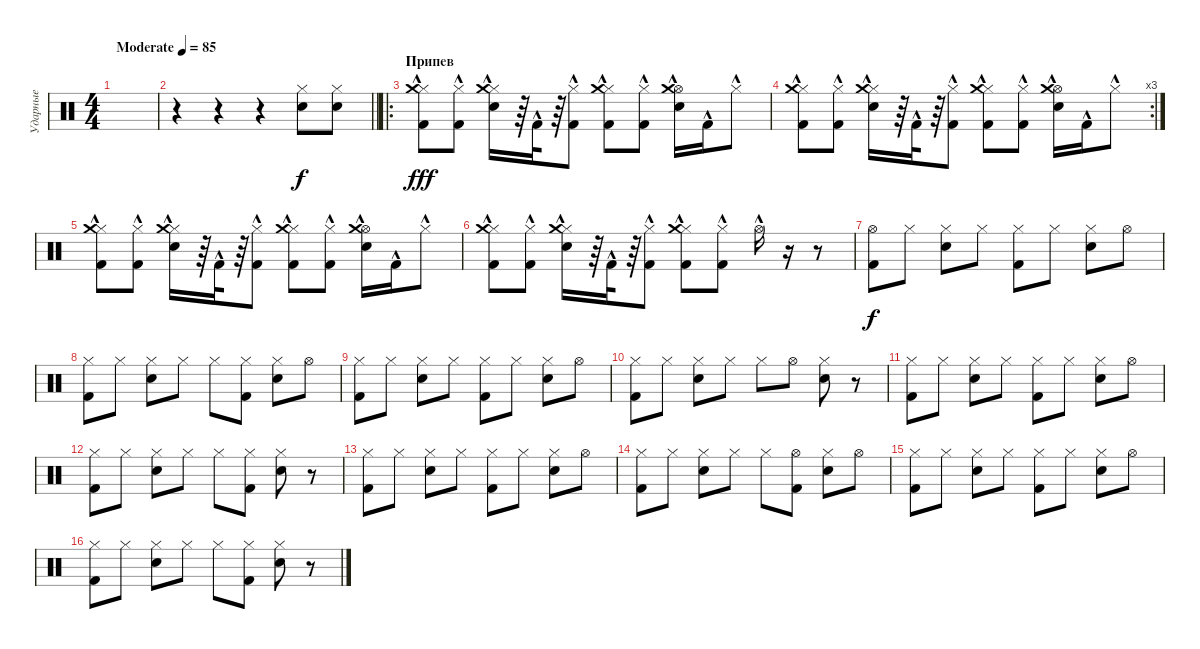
\track ("Ударные" "Ударные") {instrument percussion}
\staff {score}
\articulation defaults
\ts (4 4)
\tempo (85 "Moderate")
\clef neutral
\ks c
|
\barLineRight lightlight
r.4 r.4 r.4 ("Hi-Hat (closed)" "Electric Snare (hit)").8 ("Hi-Hat (closed)" "Electric Snare (hit)").8 |
\ro
\section ("" "Припев")
("Hi-Hat (closed)"{hac} "Kick (hit) 2"{hac} "Crash medium (hit)"{hac}).8{dy fff} ("Hi-Hat (closed)"{hac} "Kick (hit) 2"{hac}).8 ("Hi-Hat (closed)"{hac} "Electric Snare (hit)"{hac} "Crash medium (hit)"{hac}).16 r.64 "Kick (hit) 2"{hac}.32 r.64 ("Hi-Hat (closed)"{hac} "Kick (hit) 2"{hac}).8 ("Hi-Hat (closed)"{hac} "Kick (hit) 2"{hac} "Crash medium (hit)"{hac}).8 ("Hi-Hat (closed)"{hac} "Kick (hit) 2"{hac}).8 ("Hi-Hat (open)"{hac} "Electric Snare (hit)"{hac} "Crash medium (hit)"{hac}).16 "Kick (hit) 2"{hac}.16 "Hi-Hat (closed)"{hac}.8 |
\rc 3
("Hi-Hat (closed)"{hac} "Kick (hit) 2"{hac} "Crash medium (hit)"{hac}).8 ("Hi-Hat (closed)"{hac} "Kick (hit) 2"{hac}).8 ("Hi-Hat (closed)"{hac} "Electric Snare (hit)"{hac} "Crash medium (hit)"{hac}).16 r.64 "Kick (hit) 2"{hac}.32 r.64 ("Hi-Hat (closed)"{hac} "Kick (hit) 2"{hac}).8 ("Hi-Hat (closed)"{hac} "Kick (hit) 2"{hac} "Crash medium (hit)"{hac}).8 ("Hi-Hat (closed)"{hac} "Kick (hit) 2"{hac}).8 ("Hi-Hat (open)"{hac} "Electric Snare (hit)"{hac} "Crash medium (hit)"{hac}).16 "Kick (hit) 2"{hac}.16 "Hi-Hat (closed)"{hac}.8 |
("Hi-Hat (closed)"{hac} "Kick (hit) 2"{hac} "Crash medium (hit)"{hac}).8 ("Hi-Hat (closed)"{hac} "Kick (hit) 2"{hac}).8 ("Hi-Hat (closed)"{hac} "Electric Snare (hit)"{hac} "Crash medium (hit)"{hac}).16 r.64 "Kick (hit) 2"{hac}.32 r.64 ("Hi-Hat (closed)"{hac} "Kick (hit) 2"{hac}).8 ("Hi-Hat (closed)"{hac} "Kick (hit) 2"{hac} "Crash medium (hit)"{hac}).8 ("Hi-Hat (closed)"{hac} "Kick (hit) 2"{hac}).8 ("Hi-Hat (open)"{hac} "Electric Snare (hit)"{hac} "Crash medium (hit)"{hac}).16 "Kick (hit) 2"{hac}.16 "Hi-Hat (closed)"{hac}.8 |
("Hi-Hat (closed)"{hac} "Kick (hit) 2"{hac} "Crash medium (hit)"{hac}).8 ("Hi-Hat (closed)"{hac} "Kick (hit) 2"{hac}).8 ("Hi-Hat (closed)"{hac} "Electric Snare (hit)"{hac} "Crash medium (hit)"{hac}).16 r.64 "Kick (hit) 2"{hac}.32 r.64 ("Hi-Hat (closed)"{hac} "Kick (hit) 2"{hac}).8 ("Hi-Hat (closed)"{hac} "Kick (hit) 2"{hac} "Crash medium (hit)"{hac}).8 ("Hi-Hat (closed)"{hac} "Kick (hit) 2"{hac}).8 "Hi-Hat (open)"{hac}.16 r.16 r.8 |
("Hi-Hat (open)" "Kick (hit) 2").8{dy f} "Hi-Hat (closed)".8 ("Hi-Hat (closed)" "Electric Snare (hit)").8 "Hi-Hat (closed)".8 ("Hi-Hat (closed)" "Kick (hit) 2").8 "Hi-Hat (closed)".8 ("Hi-Hat (closed)" "Electric Snare (hit)").8 "Hi-Hat (open)".8 |
("Hi-Hat (closed)" "Kick (hit) 2").8 "Hi-Hat (closed)".8 ("Hi-Hat (closed)" "Electric Snare (hit)").8 "Hi-Hat (closed)".8 "Hi-Hat (closed)".8 ("Hi-Hat (closed)" "Kick (hit) 2").8 ("Hi-Hat (closed)" "Electric Snare (hit)").8 "Hi-Hat (open)".8 |
("Hi-Hat (closed)" "Kick (hit) 2").8 "Hi-Hat (closed)".8 ("Hi-Hat (closed)" "Electric Snare (hit)").8 "Hi-Hat (closed)".8 ("Hi-Hat (closed)" "Kick (hit) 2").8 "Hi-Hat (closed)".8 ("Hi-Hat (closed)" "Electric Snare (hit)").8 "Hi-Hat (open)".8 |
("Hi-Hat (closed)" "Kick (hit) 2").8 "Hi-Hat (closed)".8 ("Hi-Hat (closed)" "Electric Snare (hit)").8 "Hi-Hat (closed)".8 "Hi-Hat (closed)".8 "Hi-Hat (open)".8 ("Hi-Hat (closed)" "Electric Snare (hit)").8 r.8 |
("Hi-Hat (closed)" "Kick (hit) 2").8 "Hi-Hat (closed)".8 ("Hi-Hat (closed)" "Electric Snare (hit)").8 "Hi-Hat (closed)".8 ("Hi-Hat (closed)" "Kick (hit) 2").8 "Hi-Hat (closed)".8 ("Hi-Hat (closed)" "Electric Snare (hit)").8 "Hi-Hat (open)".8 |
("Hi-Hat (closed)" "Kick (hit) 2").8 "Hi-Hat (closed)".8 ("Hi-Hat (closed)" "Electric Snare (hit)").8 "Hi-Hat (closed)".8 "Hi-Hat (closed)".8 ("Hi-Hat (closed)" "Kick (hit) 2").8 ("Hi-Hat (closed)" "Electric Snare (hit)").8 r.8 |
("Hi-Hat (closed)" "Kick (hit) 2").8 "Hi-Hat (closed)".8 ("Hi-Hat (closed)" "Electric Snare (hit)").8 "Hi-Hat (closed)".8 ("Hi-Hat (closed)" "Kick (hit) 2").8 "Hi-Hat (closed)".8 ("Hi-Hat (closed)" "Electric Snare (hit)").8 "Hi-Hat (open)".8 |
("Hi-Hat (closed)" "Kick (hit) 2").8 "Hi-Hat (closed)".8 ("Hi-Hat (closed)" "Electric Snare (hit)").8 "Hi-Hat (closed)".8 "Hi-Hat (closed)".8 ("Hi-Hat (open)" "Kick (hit) 2").8 ("Hi-Hat (closed)" "Electric Snare (hit)").8 "Hi-Hat (open)".8 |
("Hi-Hat (closed)" "Kick (hit) 2").8 "Hi-Hat (closed)".8 ("Hi-Hat (closed)" "Electric Snare (hit)").8 "Hi-Hat (closed)".8 ("Hi-Hat (closed)" "Kick (hit) 2").8 "Hi-Hat (closed)".8 ("Hi-Hat (closed)" "Electric Snare (hit)").8 "Hi-Hat (open)".8 |
("Hi-Hat (closed)" "Kick (hit) 2").8 "Hi-Hat (closed)".8 ("Hi-Hat (closed)" "Electric Snare (hit)").8 "Hi-Hat (closed)".8 "Hi-Hat (closed)".8 ("Hi-Hat (closed)" "Kick (hit) 2").8 ("Hi-Hat (closed)" "Electric Snare (hit)").8 r.8
